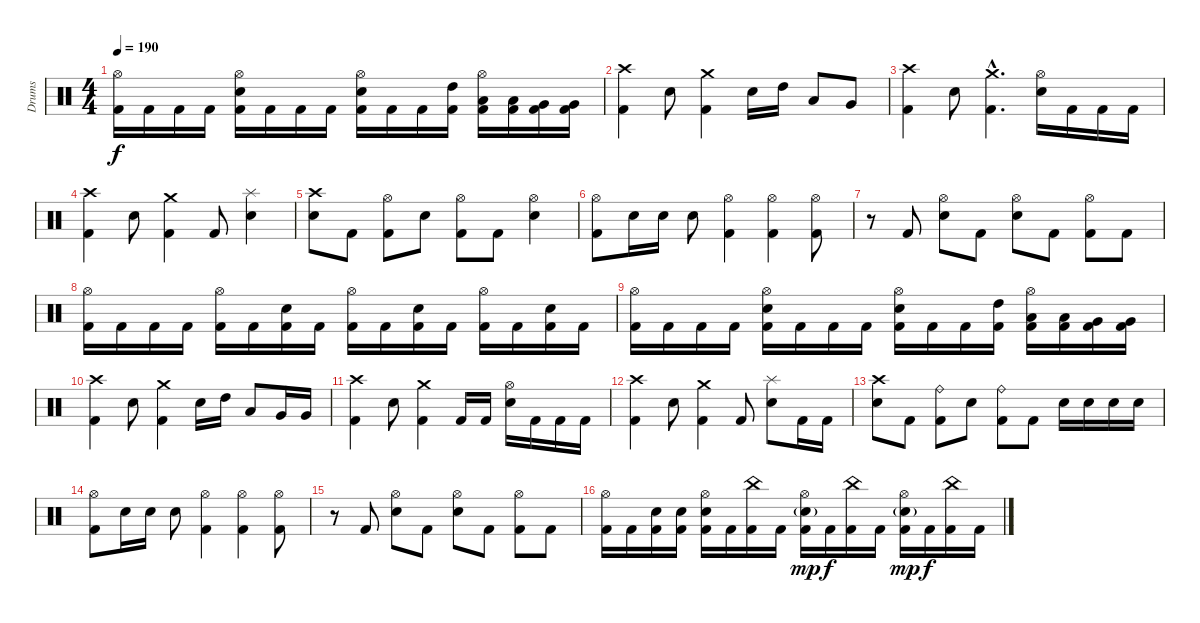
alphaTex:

\track ("Drums" "Drums") {instrument percussion}
\staff {score}
\articulation defaults
\ts (4 4)
\tempo 190
\clef neutral
\ks c
("Hi-Hat (open)" "Kick (hit) 2").16{dy f} "Kick (hit) 2".16 "Kick (hit) 2".16 "Kick (hit) 2".16 ("Hi-Hat (open)" "Snare (hit) 2" "Kick (hit) 2").16 "Kick (hit) 2".16 "Kick (hit) 2".16 "Kick (hit) 2".16 ("Hi-Hat (open)" "Snare (hit) 2" "Kick (hit) 2").16 "Kick (hit) 2".16 "Kick (hit) 2".16 ("High Tom (hit)" "Kick (hit) 2").16 ("Hi-Hat (open)" "Low Tom (hit)" "Kick (hit) 2").16 ("Low Tom (hit)" "Kick (hit) 2").16 ("Very Low Tom (hit)" "Kick (hit) 2").16 ("Very Low Tom (hit)" "Kick (hit) 2").16 |
("Crash high (hit)" "Kick (hit) 2").4 "Snare (hit) 2".8 ("Crash medium (hit)" "Kick (hit) 2").4 "Snare (hit) 2".16 "High Tom (hit)".16 "Low Tom (hit)".8 "Very Low Tom (hit)".8 |
("Crash high (hit)" "Kick (hit) 2").4 "Snare (hit) 2".8 ("Crash medium (hit)"{hac} "Kick (hit) 2"{hac}).4{d} ("Hi-Hat (open)" "Snare (hit) 2").16 "Kick (hit) 2".16 "Kick (hit) 2".16 "Kick (hit) 2".16 |
("Crash high (hit)" "Kick (hit) 2").4 "Snare (hit) 2".8 ("Crash medium (hit)" "Kick (hit) 2").4 "Kick (hit) 2".8 ("Splash (hit)" "Snare (hit) 2").4 |
("Crash high (hit)" "Snare (hit) 2").8 "Kick (hit) 2".8 ("Hi-Hat (open)" "Kick (hit) 2").8 "Snare (hit) 2".8 ("Hi-Hat (open)" "Kick (hit) 2").8 "Kick (hit) 2".8 ("Hi-Hat (open)" "Snare (hit) 2").4 |
("Hi-Hat (open)" "Kick (hit) 2").8 "Snare (hit) 2".16 "Snare (hit) 2".16 "Snare (hit) 2".8 ("Hi-Hat (open)" "Kick (hit) 2").4 ("Hi-Hat (open)" "Kick (hit) 2").4 ("Hi-Hat (open)" "Kick (hit) 2").8 |
r.8 "Kick (hit) 2".8 ("Hi-Hat (open)" "Snare (hit) 2").8 "Kick (hit) 2".8 ("Hi-Hat (open)" "Snare (hit) 2").8 "Kick (hit) 2".8 ("Hi-Hat (open)" "Kick (hit) 2").8 "Kick (hit) 2".8 |
("Hi-Hat (open)" "Kick (hit) 2").16 "Kick (hit) 2".16 "Kick (hit) 2".16 "Kick (hit) 2".16 ("Hi-Hat (open)" "Kick (hit) 2").16 "Kick (hit) 2".16 ("Snare (hit) 2" "Kick (hit) 2").16 "Kick (hit) 2".16 ("Hi-Hat (open)" "Kick (hit) 2").16 "Kick (hit) 2".16 ("Snare (hit) 2" "Kick (hit) 2").16 "Kick (hit) 2".16 ("Hi-Hat (open)" "Kick (hit) 2").16 "Kick (hit) 2".16 ("Snare (hit) 2" "Kick (hit) 2").16 "Kick (hit) 2".16 |
("Hi-Hat (open)" "Kick (hit) 2").16 "Kick (hit) 2".16 "Kick (hit) 2".16 "Kick (hit) 2".16 ("Hi-Hat (open)" "Snare (hit) 2" "Kick (hit) 2").16 "Kick (hit) 2".16 "Kick (hit) 2".16 "Kick (hit) 2".16 ("Hi-Hat (open)" "Snare (hit) 2" "Kick (hit) 2").16 "Kick (hit) 2".16 "Kick (hit) 2".16 ("High Tom (hit)" "Kick (hit) 2").16 ("Hi-Hat (open)" "Low Tom (hit)" "Kick (hit) 2").16 ("Low Tom (hit)" "Kick (hit) 2").16 ("Very Low Tom (hit)" "Kick (hit) 2").16 ("Very Low Tom (hit)" "Kick (hit) 2").16 |
("Crash high (hit)" "Kick (hit) 2").4 "Snare (hit) 2".8 ("Crash medium (hit)" "Kick (hit) 2").4 "Snare (hit) 2".16 "High Tom (hit)".16 "Low Tom (hit)".8 "Very Low Tom (hit)".16 "Very Low Tom (hit)".16 |
("Crash high (hit)" "Kick (hit) 2").4 "Snare (hit) 2".8 ("Crash medium (hit)" "Kick (hit) 2").4 "Kick (hit) 2".16 "Kick (hit) 2".16 ("Hi-Hat (open)" "Snare (hit) 2").16 "Kick (hit) 2".16 "Kick (hit) 2".16 "Kick (hit) 2".16 |
("Crash high (hit)" "Kick (hit) 2").4 "Snare (hit) 2".8 ("Crash medium (hit)" "Kick (hit) 2").4 "Kick (hit) 2".8 ("Splash (hit)" "Snare (hit) 2").8 "Kick (hit) 2".16 "Kick (hit) 2".16 |
("Crash high (hit)" "Snare (hit) 2").8 "Kick (hit) 2".8 ("Ride (bell)" "Kick (hit) 2").8 "Snare (hit) 2".8 ("Ride (bell)" "Kick (hit) 2").8 "Kick (hit) 2".8 "Snare (hit) 2".16 "Snare (hit) 2".16 "Snare (hit) 2".16 "Snare (hit) 2".16 |
("Hi-Hat (open)" "Kick (hit) 2").8 "Snare (hit) 2".16 "Snare (hit) 2".16 "Snare (hit) 2".8 ("Hi-Hat (open)" "Kick (hit) 2").4 ("Hi-Hat (open)" "Kick (hit) 2").4 ("Hi-Hat (open)" "Kick (hit) 2").8 |
r.8 "Kick (hit) 2".8 ("Hi-Hat (open)" "Snare (hit) 2").8 "Kick (hit) 2".8 ("Hi-Hat (open)" "Snare (hit) 2").8 "Kick (hit) 2".8 ("Hi-Hat (open)" "Kick (hit) 2").8 "Kick (hit) 2".8 |
("Hi-Hat (open)" "Kick (hit) 2").16 "Kick (hit) 2".16 ("Snare (hit) 2" "Kick (hit) 2").16 ("Snare (hit) 2" "Kick (hit) 2").16 ("Hi-Hat (open)" "Snare (hit) 2" "Kick (hit) 2").16 "Kick (hit) 2".16 ("China (hit)" "Kick (hit) 2").16 "Kick (hit) 2".16 ("Hi-Hat (open)" "Snare (hit) 2"{g} "Kick (hit) 2").16{dy mp} "Kick (hit) 2".16{dy f} ("China (hit)" "Kick (hit) 2").16 "Kick (hit) 2".16 ("Hi-Hat (open)" "Snare (hit) 2"{g} "Kick (hit) 2").16{dy mp} "Kick (hit) 2".16{dy f} ("China (hit)" "Kick (hit) 2").16 "Kick (hit) 2".16
